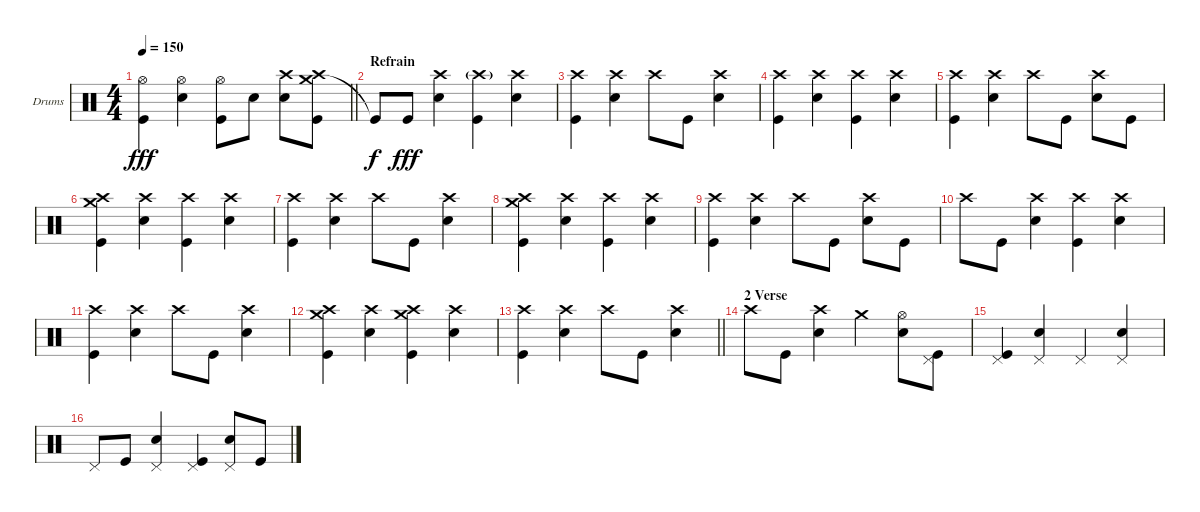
\bracketExtendMode groupsimilarinstruments
\firstSystemTrackNameOrientation horizontal
\otherSystemsTrackNameOrientation horizontal
\track ("Drumkit" "Drums") {instrument percussion}
\staff {score}
\articulation defaults
\ts (4 4)
\tempo 150
\clef neutral
\barLineRight lightlight
\ks c
("Hi-Hat (open)" "Kick (hit)").4{dy fff} ("Hi-Hat (open)" "Snare (hit) 2").4 ("Hi-Hat (open)" "Kick (hit)").8 "Snare (hit) 2".8 ("Crash high (hit)" "Snare (hit) 2").8 ("Crash medium (hit)" "Crash high (hit)" "Kick (hit)").8 |
\section ("" "Refrain")
"Kick (hit)"{t}.8{dy f} "Kick (hit)".8{dy fff} ("Crash high (hit)" "Snare (hit) 2").4 ("Crash high (hit)"{g} "Kick (hit)").4 ("Crash high (hit)" "Snare (hit) 2").4 |
("Crash high (hit)" "Kick (hit)").4 ("Crash high (hit)" "Snare (hit) 2").4 "Crash high (hit)".8 "Kick (hit)".8 ("Crash high (hit)" "Snare (hit) 2").4 |
("Crash high (hit)" "Kick (hit)").4 ("Crash high (hit)" "Snare (hit) 2").4 ("Crash high (hit)" "Kick (hit)").4 ("Crash high (hit)" "Snare (hit) 2").4 |
("Crash high (hit)" "Kick (hit)").4 ("Crash high (hit)" "Snare (hit) 2").4 "Crash high (hit)".8 "Kick (hit)".8 ("Crash high (hit)" "Snare (hit) 2").8 "Kick (hit)".8 |
("Crash high (hit)" "Crash medium (hit)" "Kick (hit)").4 ("Crash high (hit)" "Snare (hit) 2").4 ("Crash high (hit)" "Kick (hit)").4 ("Crash high (hit)" "Snare (hit) 2").4 |
("Crash high (hit)" "Kick (hit)").4 ("Crash high (hit)" "Snare (hit) 2").4 "Crash high (hit)".8 "Kick (hit)".8 ("Crash high (hit)" "Snare (hit) 2").4 |
("Crash high (hit)" "Crash medium (hit)" "Kick (hit)").4 ("Crash high (hit)" "Snare (hit) 2").4 ("Crash high (hit)" "Kick (hit)").4 ("Crash high (hit)" "Snare (hit) 2").4 |
("Crash high (hit)" "Kick (hit)").4 ("Crash high (hit)" "Snare (hit) 2").4 "Crash high (hit)".8 "Kick (hit)".8 ("Crash high (hit)" "Snare (hit) 2").8 "Kick (hit)".8 |
"Crash high (hit)".8 "Kick (hit)".8 ("Crash high (hit)" "Snare (hit) 2").4 ("Crash high (hit)" "Kick (hit)").4 ("Crash high (hit)" "Snare (hit) 2").4 |
("Crash high (hit)" "Kick (hit)").4 ("Crash high (hit)" "Snare (hit) 2").4 "Crash high (hit)".8 "Kick (hit)".8 ("Crash high (hit)" "Snare (hit) 2").4 |
("Crash high (hit)" "Crash medium (hit)" "Kick (hit)").4 ("Crash high (hit)" "Snare (hit) 2").4 ("Crash high (hit)" "Crash medium (hit)" "Kick (hit)").4 ("Crash high (hit)" "Snare (hit) 2").4 |
\barLineRight lightlight
("Crash high (hit)" "Kick (hit)").4 ("Crash high (hit)" "Snare (hit) 2").4 "Crash high (hit)".8 "Kick (hit)".8 ("Crash high (hit)" "Snare (hit) 2").4 |
\section ("" "2 Verse")
"Crash high (hit)".8 "Kick (hit)".8 ("Crash high (hit)" "Snare (hit) 2").4 "Crash medium (hit)".4 ("Hi-Hat (open)" "Snare (hit) 2").8 ("Pedal Hi-Hat (hit)" "Kick (hit)").8 |
("Pedal Hi-Hat (hit)" "Kick (hit)").4 ("Pedal Hi-Hat (hit)" "Snare (hit) 2").4 "Pedal Hi-Hat (hit)".4 ("Pedal Hi-Hat (hit)" "Snare (hit) 2").4 |
"Pedal Hi-Hat (hit)".8 "Kick (hit)".8 ("Pedal Hi-Hat (hit)" "Snare (hit) 2").4 ("Pedal Hi-Hat (hit)" "Kick (hit)").4 ("Pedal Hi-Hat (hit)" "Snare (hit) 2").8 "Kick (hit)".8
